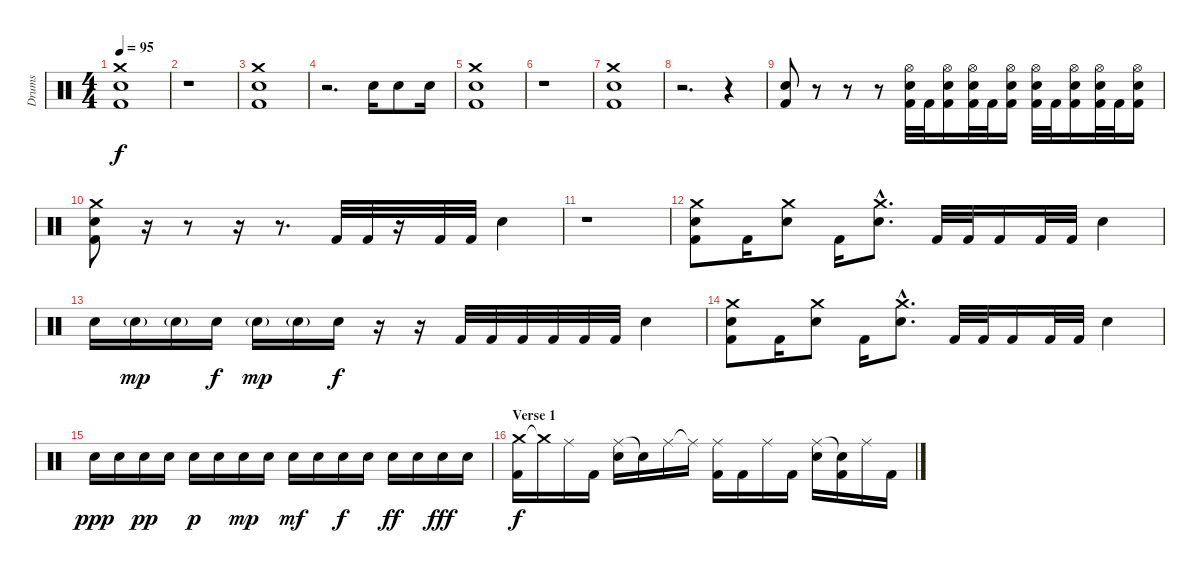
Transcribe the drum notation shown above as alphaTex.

\track ("Drums" "Drums") {instrument percussion}
\staff {score}
\articulation defaults
\ts (4 4)
\tempo 95
\clef neutral
\ks c
("Crash medium (hit)" "Electric Snare (hit)" "Kick (hit) 2").1{dy f} |
r.1 |
("Crash medium (hit)" "Electric Snare (hit)" "Kick (hit) 2").1 |
r.2{d} "Electric Snare (hit)".16 "Electric Snare (hit)".8 "Electric Snare (hit)".16 |
("Crash medium (hit)" "Electric Snare (hit)" "Kick (hit) 2").1 |
r.1 |
("Crash medium (hit)" "Electric Snare (hit)" "Kick (hit) 2").1 |
r.2{d} r.4 |
("Electric Snare (hit)" "Kick (hit) 2").8 r.8 r.8 r.8 ("Hi-Hat (open)" "Electric Snare (hit)" "Kick (hit) 2").32 "Kick (hit) 2".32 ("Hi-Hat (open)" "Electric Snare (hit)" "Kick (hit) 2").16 ("Hi-Hat (open)" "Electric Snare (hit)" "Kick (hit) 2").32 "Kick (hit) 2".32 ("Hi-Hat (open)" "Electric Snare (hit)" "Kick (hit) 2").16 ("Hi-Hat (open)" "Electric Snare (hit)" "Kick (hit) 2").32 "Kick (hit) 2".32 ("Hi-Hat (open)" "Electric Snare (hit)" "Kick (hit) 2").16 ("Hi-Hat (open)" "Electric Snare (hit)" "Kick (hit) 2").32 "Kick (hit) 2".32 ("Hi-Hat (open)" "Electric Snare (hit)" "Kick (hit) 2").16 |
("Crash medium (hit)" "Electric Snare (hit)" "Kick (hit) 2").8 r.16 r.8 r.16 r.8{d} "Kick (hit) 2".32 "Kick (hit) 2".32 r.16 "Kick (hit) 2".32 "Kick (hit) 2".32 "Electric Snare (hit)".4 |
r.1 |
("Crash medium (hit)" "Electric Snare (hit)" "Kick (hit) 2").8 "Kick (hit) 2".16 ("Crash medium (hit)" "Electric Snare (hit)").8 "Kick (hit) 2".16 ("Crash medium (hit)"{hac} "Electric Snare (hit)"{hac}).8{d} "Kick (hit) 2".32 "Kick (hit) 2".32 "Kick (hit) 2".16 "Kick (hit) 2".32 "Kick (hit) 2".32 "Electric Snare (hit)".4 |
"Electric Snare (hit)".16 "Electric Snare (hit)"{g}.16{dy mp} "Electric Snare (hit)"{g}.16 "Electric Snare (hit)".16{dy f} "Electric Snare (hit)"{g}.16{dy mp} "Electric Snare (hit)"{g}.16 "Electric Snare (hit)".16{dy f} r.16 r.16 "Kick (hit) 2".32 "Kick (hit) 2".32 "Kick (hit) 2".32 "Kick (hit) 2".32 "Kick (hit) 2".32 "Kick (hit) 2".32 "Electric Snare (hit)".4 |
("Crash medium (hit)" "Electric Snare (hit)" "Kick (hit) 2").8 "Kick (hit) 2".16 ("Crash medium (hit)" "Electric Snare (hit)").8 "Kick (hit) 2".16 ("Crash medium (hit)"{hac} "Electric Snare (hit)"{hac}).8{d} "Kick (hit) 2".32 "Kick (hit) 2".32 "Kick (hit) 2".16 "Kick (hit) 2".32 "Kick (hit) 2".32 "Electric Snare (hit)".4 |
"Electric Snare (hit)".16{dy ppp} "Electric Snare (hit)".16 "Electric Snare (hit)".16{dy pp} "Electric Snare (hit)".16 "Electric Snare (hit)".16{dy p} "Electric Snare (hit)".16 "Electric Snare (hit)".16{dy mp} "Electric Snare (hit)".16 "Electric Snare (hit)".16{dy mf} "Electric Snare (hit)".16 "Electric Snare (hit)".16{dy f} "Electric Snare (hit)".16 "Electric Snare (hit)".16{dy ff} "Electric Snare (hit)".16 "Electric Snare (hit)".16{dy fff} "Electric Snare (hit)".16 |
\section ("" "Verse 1")
("Crash medium (hit)" "Kick (hit) 2").16{dy f} "Crash medium (hit)"{t}.16 "Ride (middle)".16 "Kick (hit) 2".16 ("Ride (middle)" "Electric Snare (hit)").16 "Electric Snare (hit)"{t}.16 "Ride (middle)".16 "Ride (middle)"{t}.16 ("Ride (middle)" "Kick (hit) 2").16 "Kick (hit) 2".16 "Ride (middle)".16 "Kick (hit) 2".16 ("Ride (middle)" "Electric Snare (hit)").16 ("Electric Snare (hit)"{t} "Kick (hit) 2").16 "Ride (middle)".16 "Kick (hit) 2".16
